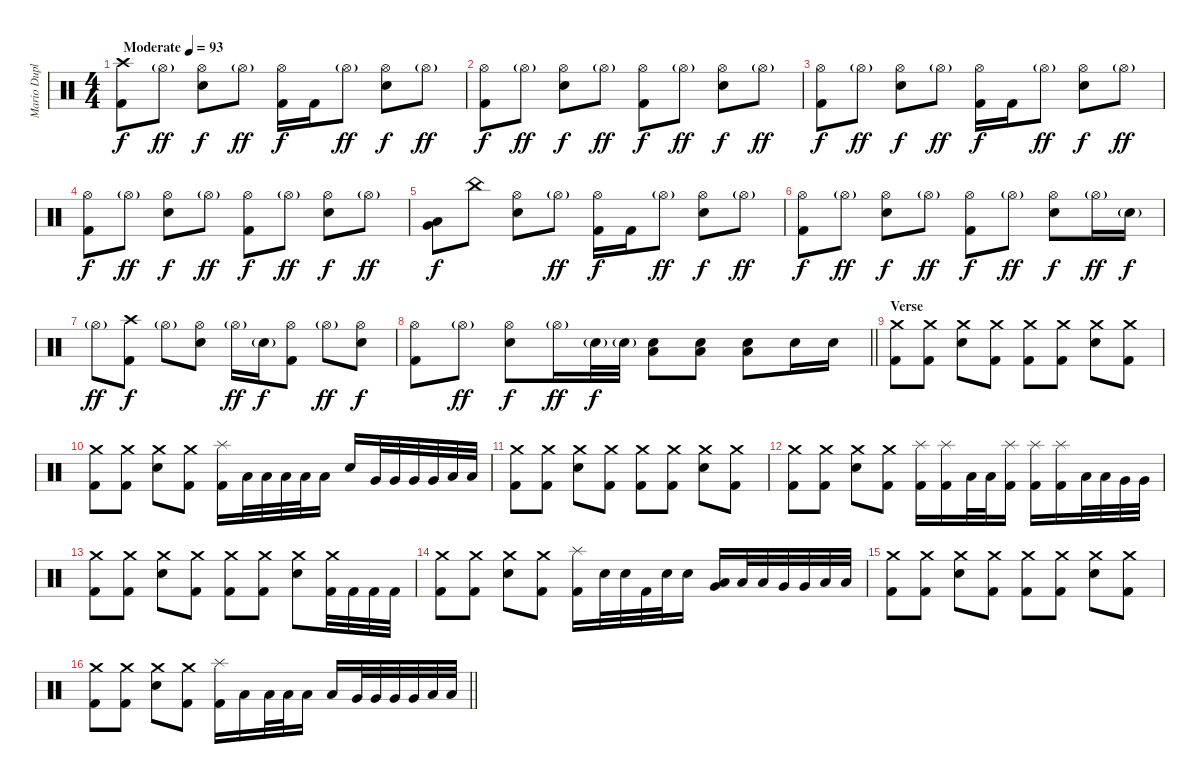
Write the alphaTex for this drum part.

\track ("Mario Duplantier" "Mario Dupl") {instrument percussion}
\staff {score}
\articulation defaults
\ts (4 4)
\tempo (93 "Moderate")
\clef neutral
\ks c
("Crash high (hit)" "Kick (hit) 2").8{dy f} "Hi-Hat (open)"{g}.8{dy ff} ("Hi-Hat (open)" "Snare (hit) 2").8{dy f} "Hi-Hat (open)"{g}.8{dy ff} ("Hi-Hat (open)" "Kick (hit) 2").16{dy f} "Kick (hit) 2".16 "Hi-Hat (open)"{g}.8{dy ff} ("Hi-Hat (open)" "Snare (hit) 2").8{dy f} "Hi-Hat (open)"{g}.8{dy ff} |
("Hi-Hat (open)" "Kick (hit) 2").8{dy f} "Hi-Hat (open)"{g}.8{dy ff} ("Hi-Hat (open)" "Snare (hit) 2").8{dy f} "Hi-Hat (open)"{g}.8{dy ff} ("Hi-Hat (open)" "Kick (hit) 2").8{dy f} "Hi-Hat (open)"{g}.8{dy ff} ("Hi-Hat (open)" "Snare (hit) 2").8{dy f} "Hi-Hat (open)"{g}.8{dy ff} |
("Hi-Hat (open)" "Kick (hit) 2").8{dy f} "Hi-Hat (open)"{g}.8{dy ff} ("Hi-Hat (open)" "Snare (hit) 2").8{dy f} "Hi-Hat (open)"{g}.8{dy ff} ("Hi-Hat (open)" "Kick (hit) 2").16{dy f} "Kick (hit) 2".16 "Hi-Hat (open)"{g}.8{dy ff} ("Hi-Hat (open)" "Snare (hit) 2").8{dy f} "Hi-Hat (open)"{g}.8{dy ff} |
("Hi-Hat (open)" "Kick (hit) 2").8{dy f} "Hi-Hat (open)"{g}.8{dy ff} ("Hi-Hat (open)" "Snare (hit) 2").8{dy f} "Hi-Hat (open)"{g}.8{dy ff} ("Hi-Hat (open)" "Kick (hit) 2").8{dy f} "Hi-Hat (open)"{g}.8{dy ff} ("Hi-Hat (open)" "Snare (hit) 2").8{dy f} "Hi-Hat (open)"{g}.8{dy ff} |
("Very Low Tom (hit)" "Low Floor Tom (hit)").8{dy f} "China (hit)".8 ("Hi-Hat (open)" "Snare (hit) 2").8 "Hi-Hat (open)"{g}.8{dy ff} ("Hi-Hat (open)" "Kick (hit) 2").16{dy f} "Kick (hit) 2".16 "Hi-Hat (open)"{g}.8{dy ff} ("Hi-Hat (open)" "Snare (hit) 2").8{dy f} "Hi-Hat (open)"{g}.8{dy ff} |
("Hi-Hat (open)" "Kick (hit) 2").8{dy f} "Hi-Hat (open)"{g}.8{dy ff} ("Hi-Hat (open)" "Snare (hit) 2").8{dy f} "Hi-Hat (open)"{g}.8{dy ff} ("Hi-Hat (open)" "Kick (hit) 2").8{dy f} "Hi-Hat (open)"{g}.8{dy ff} ("Hi-Hat (open)" "Snare (hit) 2").8{dy f} "Hi-Hat (open)"{g}.16{dy ff} "Snare (hit) 2"{g}.16{dy f} |
"Hi-Hat (open)"{g}.8{dy ff} ("Crash high (hit)" "Kick (hit) 2").8{dy f} "Hi-Hat (open)"{g}.8 ("Hi-Hat (open)" "Snare (hit) 2").8 "Hi-Hat (open)"{g}.16{dy ff} "Snare (hit) 2"{g}.16{dy f} ("Hi-Hat (open)" "Kick (hit) 2").8 "Hi-Hat (open)"{g}.8{dy ff} ("Hi-Hat (open)" "Snare (hit) 2").8{dy f} |
\barLineRight lightlight
("Hi-Hat (open)" "Kick (hit) 2").8 "Hi-Hat (open)"{g}.8{dy ff} ("Hi-Hat (open)" "Snare (hit) 2").8{dy f} "Hi-Hat (open)"{g}.16{dy ff} "Snare (hit) 2"{g}.32{dy f} "Snare (hit) 2"{g}.32 ("Low Floor Tom (hit)" "Snare (hit) 2").8 ("Low Floor Tom (hit)" "Snare (hit) 2").8 ("Low Floor Tom (hit)" "Snare (hit) 2").8 "Snare (hit) 2".16 "Snare (hit) 2".16 |
\section ("" "Verse")
("Crash medium (hit)" "Kick (hit) 2").8 ("Crash medium (hit)" "Kick (hit) 2").8 ("Crash medium (hit)" "Snare (hit) 2").8 ("Crash medium (hit)" "Kick (hit) 2").8 ("Crash medium (hit)" "Kick (hit) 2").8 ("Crash medium (hit)" "Kick (hit) 2").8 ("Crash medium (hit)" "Snare (hit) 2").8 ("Crash medium (hit)" "Kick (hit) 2").8 |
("Crash medium (hit)" "Kick (hit) 2").8 ("Crash medium (hit)" "Kick (hit) 2").8 ("Crash medium (hit)" "Snare (hit) 2").8 ("Crash medium (hit)" "Kick (hit) 2").8 ("Splash (hit)" "Kick (hit) 2").16 "Low Tom (hit)".32 "Low Tom (hit)".32 "Low Tom (hit)".32 "Low Tom (hit)".32 "Low Tom (hit)".16 "Snare (hit) 2".16 "Very Low Tom (hit)".32 "Very Low Tom (hit)".32 "Very Low Tom (hit)".32 "Very Low Tom (hit)".32 "Low Floor Tom (hit)".32 "Low Floor Tom (hit)".32 |
("Crash medium (hit)" "Kick (hit) 2").8 ("Crash medium (hit)" "Kick (hit) 2").8 ("Crash medium (hit)" "Snare (hit) 2").8 ("Crash medium (hit)" "Kick (hit) 2").8 ("Crash medium (hit)" "Kick (hit) 2").8 ("Crash medium (hit)" "Kick (hit) 2").8 ("Crash medium (hit)" "Snare (hit) 2").8 ("Crash medium (hit)" "Kick (hit) 2").8 |
("Crash medium (hit)" "Kick (hit) 2").8 ("Crash medium (hit)" "Kick (hit) 2").8 ("Crash medium (hit)" "Snare (hit) 2").8 ("Crash medium (hit)" "Kick (hit) 2").8 ("Splash (hit)" "Kick (hit) 2").16 ("Splash (hit)" "Kick (hit) 2").16 "Low Tom (hit)".32 "Low Tom (hit)".32 ("Splash (hit)" "Kick (hit) 2").16 ("Splash (hit)" "Kick (hit) 2").16 ("Splash (hit)" "Kick (hit) 2").16 "Low Tom (hit)".32 "Low Tom (hit)".32 "Very Low Tom (hit)".32 "Very Low Tom (hit)".32 |
("Crash medium (hit)" "Kick (hit) 2").8 ("Crash medium (hit)" "Kick (hit) 2").8 ("Crash medium (hit)" "Snare (hit) 2").8 ("Crash medium (hit)" "Kick (hit) 2").8 ("Crash medium (hit)" "Kick (hit) 2").8 ("Crash medium (hit)" "Kick (hit) 2").8 ("Crash medium (hit)" "Snare (hit) 2").8 ("Crash medium (hit)" "Kick (hit) 2").32 "Kick (hit) 2".32 "Kick (hit) 2".32 "Kick (hit) 2".32 |
("Crash medium (hit)" "Kick (hit) 2").8 ("Crash medium (hit)" "Kick (hit) 2").8 ("Crash medium (hit)" "Snare (hit) 2").8 ("Crash medium (hit)" "Kick (hit) 2").8 ("Splash (hit)" "Kick (hit) 2").16 "Snare (hit) 2".32 "Snare (hit) 2".32 "Kick (hit) 2".32 "Snare (hit) 2".32 "Snare (hit) 2".16 ("Very Low Tom (hit)" "Low Floor Tom (hit)").16 "Low Tom (hit)".32 "Low Tom (hit)".32 "Very Low Tom (hit)".32 "Very Low Tom (hit)".32 "Low Floor Tom (hit)".32 "Low Floor Tom (hit)".32 |
("Crash medium (hit)" "Kick (hit) 2").8 ("Crash medium (hit)" "Kick (hit) 2").8 ("Crash medium (hit)" "Snare (hit) 2").8 ("Crash medium (hit)" "Kick (hit) 2").8 ("Crash medium (hit)" "Kick (hit) 2").8 ("Crash medium (hit)" "Kick (hit) 2").8 ("Crash medium (hit)" "Snare (hit) 2").8 ("Crash medium (hit)" "Kick (hit) 2").8 |
\barLineRight lightlight
("Crash medium (hit)" "Kick (hit) 2").8 ("Crash medium (hit)" "Kick (hit) 2").8 ("Crash medium (hit)" "Snare (hit) 2").8 ("Crash medium (hit)" "Kick (hit) 2").8 ("Splash (hit)" "Kick (hit) 2").16 "Low Tom (hit)".16 "Low Tom (hit)".32 "Low Tom (hit)".32 "Low Tom (hit)".16 "Low Tom (hit)".16 "Very Low Tom (hit)".32 "Very Low Tom (hit)".32 "Very Low Tom (hit)".32 "Very Low Tom (hit)".32 "Low Floor Tom (hit)".32 "Low Floor Tom (hit)".32
